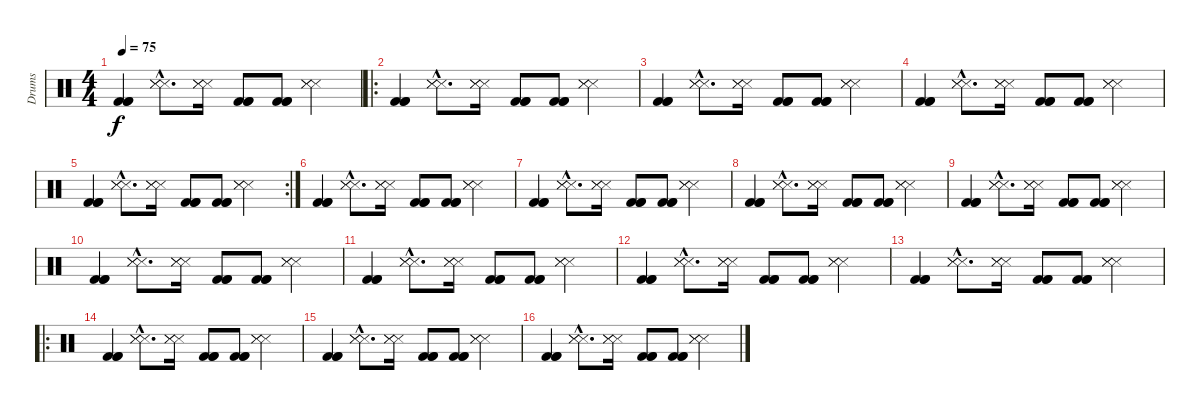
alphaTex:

\track ("Drums" "Drums") {instrument percussion}
\staff {score}
\articulation defaults
\ts (4 4)
\tempo 75
\clef neutral
\ks c
("Kick (hit) 2" "Kick (hit) 2" "Kick (hit) 2").4{dy f} ("Snare (side stick) 3"{hac} "Snare (side stick) 3"{hac} "Snare (side stick) 3"{hac}).8{d} ("Snare (side stick) 3" "Snare (side stick) 3" "Snare (side stick) 3").16 ("Kick (hit) 2" "Kick (hit) 2" "Kick (hit) 2").8 ("Kick (hit) 2" "Kick (hit) 2" "Kick (hit) 2").8 ("Snare (side stick) 3" "Snare (side stick) 3" "Snare (side stick) 3").4 |
\ro
("Kick (hit) 2" "Kick (hit) 2" "Kick (hit) 2").4 ("Snare (side stick) 3"{hac} "Snare (side stick) 3"{hac} "Snare (side stick) 3"{hac}).8{d} ("Snare (side stick) 3" "Snare (side stick) 3" "Snare (side stick) 3").16 ("Kick (hit) 2" "Kick (hit) 2" "Kick (hit) 2").8 ("Kick (hit) 2" "Kick (hit) 2" "Kick (hit) 2").8 ("Snare (side stick) 3" "Snare (side stick) 3" "Snare (side stick) 3").4 |
("Kick (hit) 2" "Kick (hit) 2" "Kick (hit) 2").4 ("Snare (side stick) 3"{hac} "Snare (side stick) 3"{hac} "Snare (side stick) 3"{hac}).8{d} ("Snare (side stick) 3" "Snare (side stick) 3" "Snare (side stick) 3").16 ("Kick (hit) 2" "Kick (hit) 2" "Kick (hit) 2").8 ("Kick (hit) 2" "Kick (hit) 2" "Kick (hit) 2").8 ("Snare (side stick) 3" "Snare (side stick) 3" "Snare (side stick) 3").4 |
("Kick (hit) 2" "Kick (hit) 2" "Kick (hit) 2").4 ("Snare (side stick) 3"{hac} "Snare (side stick) 3"{hac} "Snare (side stick) 3"{hac}).8{d} ("Snare (side stick) 3" "Snare (side stick) 3" "Snare (side stick) 3").16 ("Kick (hit) 2" "Kick (hit) 2" "Kick (hit) 2").8 ("Kick (hit) 2" "Kick (hit) 2" "Kick (hit) 2").8 ("Snare (side stick) 3" "Snare (side stick) 3" "Snare (side stick) 3").4 |
\rc 2
("Kick (hit) 2" "Kick (hit) 2" "Kick (hit) 2").4 ("Snare (side stick) 3"{hac} "Snare (side stick) 3"{hac} "Snare (side stick) 3"{hac}).8{d} ("Snare (side stick) 3" "Snare (side stick) 3" "Snare (side stick) 3").16 ("Kick (hit) 2" "Kick (hit) 2" "Kick (hit) 2").8 ("Kick (hit) 2" "Kick (hit) 2" "Kick (hit) 2").8 ("Snare (side stick) 3" "Snare (side stick) 3" "Snare (side stick) 3").4 |
("Kick (hit) 2" "Kick (hit) 2" "Kick (hit) 2").4 ("Snare (side stick) 3"{hac} "Snare (side stick) 3"{hac} "Snare (side stick) 3"{hac}).8{d} ("Snare (side stick) 3" "Snare (side stick) 3" "Snare (side stick) 3").16 ("Kick (hit) 2" "Kick (hit) 2" "Kick (hit) 2").8 ("Kick (hit) 2" "Kick (hit) 2" "Kick (hit) 2").8 ("Snare (side stick) 3" "Snare (side stick) 3" "Snare (side stick) 3").4 |
("Kick (hit) 2" "Kick (hit) 2" "Kick (hit) 2").4 ("Snare (side stick) 3"{hac} "Snare (side stick) 3"{hac} "Snare (side stick) 3"{hac}).8{d} ("Snare (side stick) 3" "Snare (side stick) 3" "Snare (side stick) 3").16 ("Kick (hit) 2" "Kick (hit) 2" "Kick (hit) 2").8 ("Kick (hit) 2" "Kick (hit) 2" "Kick (hit) 2").8 ("Snare (side stick) 3" "Snare (side stick) 3" "Snare (side stick) 3").4 |
("Kick (hit) 2" "Kick (hit) 2" "Kick (hit) 2").4 ("Snare (side stick) 3"{hac} "Snare (side stick) 3"{hac} "Snare (side stick) 3"{hac}).8{d} ("Snare (side stick) 3" "Snare (side stick) 3" "Snare (side stick) 3").16 ("Kick (hit) 2" "Kick (hit) 2" "Kick (hit) 2").8 ("Kick (hit) 2" "Kick (hit) 2" "Kick (hit) 2").8 ("Snare (side stick) 3" "Snare (side stick) 3" "Snare (side stick) 3").4 |
("Kick (hit) 2" "Kick (hit) 2" "Kick (hit) 2").4 ("Snare (side stick) 3"{hac} "Snare (side stick) 3"{hac} "Snare (side stick) 3"{hac}).8{d} ("Snare (side stick) 3" "Snare (side stick) 3" "Snare (side stick) 3").16 ("Kick (hit) 2" "Kick (hit) 2" "Kick (hit) 2").8 ("Kick (hit) 2" "Kick (hit) 2" "Kick (hit) 2").8 ("Snare (side stick) 3" "Snare (side stick) 3" "Snare (side stick) 3").4 |
("Kick (hit) 2" "Kick (hit) 2" "Kick (hit) 2").4 ("Snare (side stick) 3"{hac} "Snare (side stick) 3"{hac} "Snare (side stick) 3"{hac}).8{d} ("Snare (side stick) 3" "Snare (side stick) 3" "Snare (side stick) 3").16 ("Kick (hit) 2" "Kick (hit) 2" "Kick (hit) 2").8 ("Kick (hit) 2" "Kick (hit) 2" "Kick (hit) 2").8 ("Snare (side stick) 3" "Snare (side stick) 3" "Snare (side stick) 3").4 |
("Kick (hit) 2" "Kick (hit) 2" "Kick (hit) 2").4 ("Snare (side stick) 3"{hac} "Snare (side stick) 3"{hac} "Snare (side stick) 3"{hac}).8{d} ("Snare (side stick) 3" "Snare (side stick) 3" "Snare (side stick) 3").16 ("Kick (hit) 2" "Kick (hit) 2" "Kick (hit) 2").8 ("Kick (hit) 2" "Kick (hit) 2" "Kick (hit) 2").8 ("Snare (side stick) 3" "Snare (side stick) 3" "Snare (side stick) 3").4 |
("Kick (hit) 2" "Kick (hit) 2" "Kick (hit) 2").4 ("Snare (side stick) 3"{hac} "Snare (side stick) 3"{hac} "Snare (side stick) 3"{hac}).8{d} ("Snare (side stick) 3" "Snare (side stick) 3" "Snare (side stick) 3").16 ("Kick (hit) 2" "Kick (hit) 2" "Kick (hit) 2").8 ("Kick (hit) 2" "Kick (hit) 2" "Kick (hit) 2").8 ("Snare (side stick) 3" "Snare (side stick) 3" "Snare (side stick) 3").4 |
("Kick (hit) 2" "Kick (hit) 2" "Kick (hit) 2").4 ("Snare (side stick) 3"{hac} "Snare (side stick) 3"{hac} "Snare (side stick) 3"{hac}).8{d} ("Snare (side stick) 3" "Snare (side stick) 3" "Snare (side stick) 3").16 ("Kick (hit) 2" "Kick (hit) 2" "Kick (hit) 2").8 ("Kick (hit) 2" "Kick (hit) 2" "Kick (hit) 2").8 ("Snare (side stick) 3" "Snare (side stick) 3" "Snare (side stick) 3").4 |
\ro
("Kick (hit) 2" "Kick (hit) 2" "Kick (hit) 2").4 ("Snare (side stick) 3"{hac} "Snare (side stick) 3"{hac} "Snare (side stick) 3"{hac}).8{d} ("Snare (side stick) 3" "Snare (side stick) 3" "Snare (side stick) 3").16 ("Kick (hit) 2" "Kick (hit) 2" "Kick (hit) 2").8 ("Kick (hit) 2" "Kick (hit) 2" "Kick (hit) 2").8 ("Snare (side stick) 3" "Snare (side stick) 3" "Snare (side stick) 3").4 |
("Kick (hit) 2" "Kick (hit) 2" "Kick (hit) 2").4 ("Snare (side stick) 3"{hac} "Snare (side stick) 3"{hac} "Snare (side stick) 3"{hac}).8{d} ("Snare (side stick) 3" "Snare (side stick) 3" "Snare (side stick) 3").16 ("Kick (hit) 2" "Kick (hit) 2" "Kick (hit) 2").8 ("Kick (hit) 2" "Kick (hit) 2" "Kick (hit) 2").8 ("Snare (side stick) 3" "Snare (side stick) 3" "Snare (side stick) 3").4 |
("Kick (hit) 2" "Kick (hit) 2" "Kick (hit) 2").4 ("Snare (side stick) 3"{hac} "Snare (side stick) 3"{hac} "Snare (side stick) 3"{hac}).8{d} ("Snare (side stick) 3" "Snare (side stick) 3" "Snare (side stick) 3").16 ("Kick (hit) 2" "Kick (hit) 2" "Kick (hit) 2").8 ("Kick (hit) 2" "Kick (hit) 2" "Kick (hit) 2").8 ("Snare (side stick) 3" "Snare (side stick) 3" "Snare (side stick) 3").4
